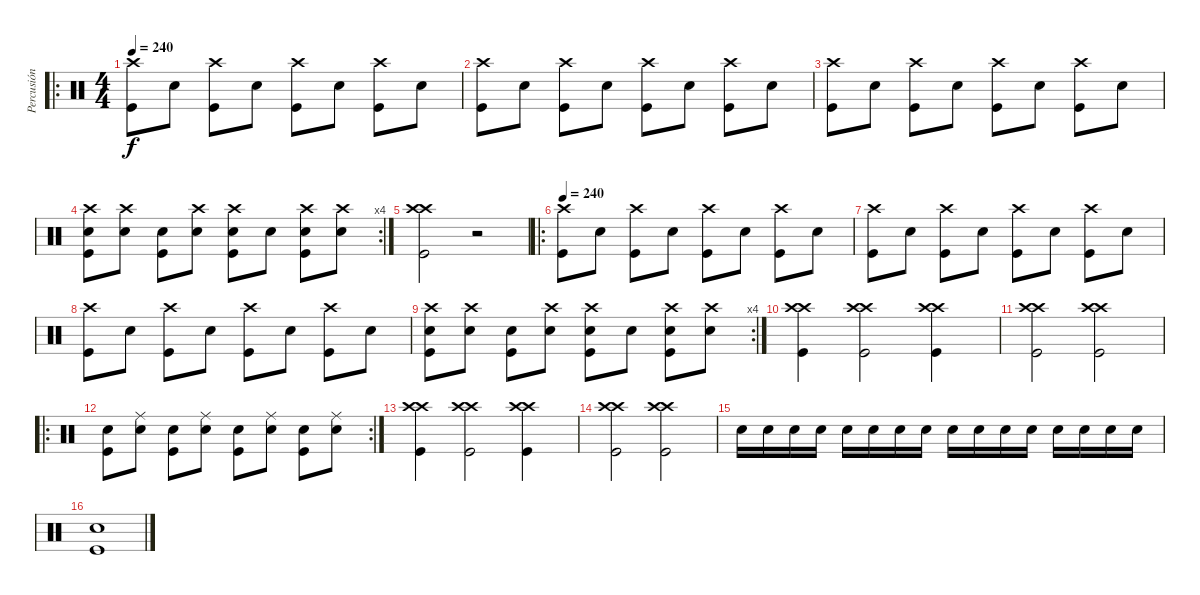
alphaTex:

\track ("Percusión" "Percusión") {instrument percussion}
\staff {score}
\articulation defaults
\ro
\ts (4 4)
\tempo 240
\clef neutral
\ks c
("Crash high (hit)" "Kick (hit)").8{dy f} "Electric Snare (hit)".8 ("Crash high (hit)" "Kick (hit)").8 "Electric Snare (hit)".8 ("Crash high (hit)" "Kick (hit)").8 "Electric Snare (hit)".8 ("Crash high (hit)" "Kick (hit)").8 "Electric Snare (hit)".8 |
("Crash high (hit)" "Kick (hit)").8 "Electric Snare (hit)".8 ("Crash high (hit)" "Kick (hit)").8 "Electric Snare (hit)".8 ("Crash high (hit)" "Kick (hit)").8 "Electric Snare (hit)".8 ("Crash high (hit)" "Kick (hit)").8 "Electric Snare (hit)".8 |
("Crash high (hit)" "Kick (hit)").8 "Electric Snare (hit)".8 ("Crash high (hit)" "Kick (hit)").8 "Electric Snare (hit)".8 ("Crash high (hit)" "Kick (hit)").8 "Electric Snare (hit)".8 ("Crash high (hit)" "Kick (hit)").8 "Electric Snare (hit)".8 |
\rc 4
("Crash high (hit)" "Electric Snare (hit)" "Kick (hit)").8 ("Crash high (hit)" "Electric Snare (hit)").8 ("Electric Snare (hit)" "Kick (hit)").8 ("Crash high (hit)" "Electric Snare (hit)").8 ("Crash high (hit)" "Electric Snare (hit)" "Kick (hit)").8 "Electric Snare (hit)".8 ("Crash high (hit)" "Electric Snare (hit)" "Kick (hit)").8 ("Crash high (hit)" "Electric Snare (hit)").8 |
("Crash high (hit)" "Crash high (hit)" "Kick (hit)").2 r.2 |
\ro
\tempo 240
("Crash high (hit)" "Kick (hit)").8 "Electric Snare (hit)".8 ("Crash high (hit)" "Kick (hit)").8 "Electric Snare (hit)".8 ("Crash high (hit)" "Kick (hit)").8 "Electric Snare (hit)".8 ("Crash high (hit)" "Kick (hit)").8 "Electric Snare (hit)".8 |
("Crash high (hit)" "Kick (hit)").8 "Electric Snare (hit)".8 ("Crash high (hit)" "Kick (hit)").8 "Electric Snare (hit)".8 ("Crash high (hit)" "Kick (hit)").8 "Electric Snare (hit)".8 ("Crash high (hit)" "Kick (hit)").8 "Electric Snare (hit)".8 |
("Crash high (hit)" "Kick (hit)").8 "Electric Snare (hit)".8 ("Crash high (hit)" "Kick (hit)").8 "Electric Snare (hit)".8 ("Crash high (hit)" "Kick (hit)").8 "Electric Snare (hit)".8 ("Crash high (hit)" "Kick (hit)").8 "Electric Snare (hit)".8 |
\rc 4
("Crash high (hit)" "Electric Snare (hit)" "Kick (hit)").8 ("Crash high (hit)" "Electric Snare (hit)").8 ("Electric Snare (hit)" "Kick (hit)").8 ("Crash high (hit)" "Electric Snare (hit)").8 ("Crash high (hit)" "Electric Snare (hit)" "Kick (hit)").8 "Electric Snare (hit)".8 ("Crash high (hit)" "Electric Snare (hit)" "Kick (hit)").8 ("Crash high (hit)" "Electric Snare (hit)").8 |
("Crash high (hit)" "Crash high (hit)" "Kick (hit)").4 ("Crash high (hit)" "Crash high (hit)" "Kick (hit)").2 ("Crash high (hit)" "Crash high (hit)" "Kick (hit)").4 |
("Crash high (hit)" "Crash high (hit)" "Kick (hit)").2 ("Crash high (hit)" "Crash high (hit)" "Kick (hit)").2 |
\ro
\rc 2
("Electric Snare (hit)" "Kick (hit)").8 ("Ride (middle)" "Electric Snare (hit)").8 ("Electric Snare (hit)" "Kick (hit)").8 ("Ride (middle)" "Electric Snare (hit)").8 ("Electric Snare (hit)" "Kick (hit)").8 ("Ride (middle)" "Electric Snare (hit)").8 ("Electric Snare (hit)" "Kick (hit)").8 ("Ride (middle)" "Electric Snare (hit)").8 |
("Crash high (hit)" "Crash high (hit)" "Kick (hit)").4 ("Crash high (hit)" "Crash high (hit)" "Kick (hit)").2 ("Crash high (hit)" "Crash high (hit)" "Kick (hit)").4 |
("Crash high (hit)" "Crash high (hit)" "Kick (hit)").2 ("Crash high (hit)" "Crash high (hit)" "Kick (hit)").2 |
"Electric Snare (hit)".16 "Electric Snare (hit)".16 "Electric Snare (hit)".16 "Electric Snare (hit)".16 "Electric Snare (hit)".16 "Electric Snare (hit)".16 "Electric Snare (hit)".16 "Electric Snare (hit)".16 "Electric Snare (hit)".16 "Electric Snare (hit)".16 "Electric Snare (hit)".16 "Electric Snare (hit)".16 "Electric Snare (hit)".16 "Electric Snare (hit)".16 "Electric Snare (hit)".16 "Electric Snare (hit)".16 |
("Electric Snare (hit)" "Kick (hit)").1
